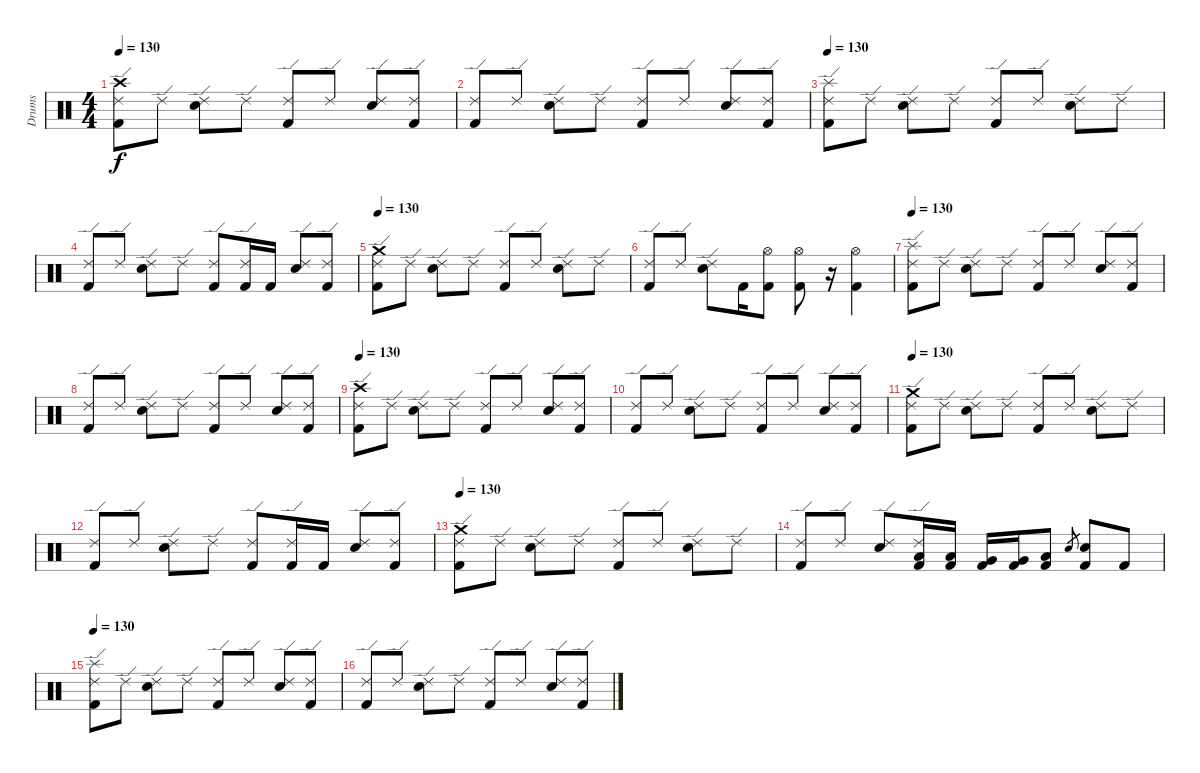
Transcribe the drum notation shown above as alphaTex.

\track ("Drums" "Drums") {instrument percussion}
\staff {score}
\articulation defaults
\ts (4 4)
\tempo 130
\clef neutral
\ks c
("Kick (hit) 2" "Ride (edge) 2" "Crash high (hit)").8{dy f} "Ride (edge) 2".8 ("Snare (hit) 2" "Ride (edge) 2").8 "Ride (edge) 2".8 ("Kick (hit) 2" "Ride (edge) 2").8 "Ride (edge) 2".8 ("Snare (hit) 2" "Ride (edge) 2").8 ("Kick (hit) 2" "Ride (edge) 2").8 |
("Kick (hit) 2" "Ride (edge) 2").8 "Ride (edge) 2".8 ("Snare (hit) 2" "Ride (edge) 2").8 "Ride (edge) 2".8 ("Kick (hit) 2" "Ride (edge) 2").8 "Ride (edge) 2".8 ("Snare (hit) 2" "Ride (edge) 2").8 ("Kick (hit) 2" "Ride (edge) 2").8 |
\tempo 130
("Kick (hit) 2" "Ride (edge) 2" "Splash (hit)").8 "Ride (edge) 2".8 ("Snare (hit) 2" "Ride (edge) 2").8 "Ride (edge) 2".8 ("Kick (hit) 2" "Ride (edge) 2").8 "Ride (edge) 2".8 ("Snare (hit) 2" "Ride (edge) 2").8 "Ride (edge) 2".8 |
("Kick (hit) 2" "Ride (edge) 2").8 "Ride (edge) 2".8 ("Snare (hit) 2" "Ride (edge) 2").8 "Ride (edge) 2".8 ("Kick (hit) 2" "Ride (edge) 2").8 ("Kick (hit) 2" "Ride (edge) 2").16 "Kick (hit) 2".16 ("Snare (hit) 2" "Ride (edge) 2").8 ("Kick (hit) 2" "Ride (edge) 2").8 |
\tempo 130
("Kick (hit) 2" "Ride (edge) 2" "Crash medium (hit)").8 "Ride (edge) 2".8 ("Snare (hit) 2" "Ride (edge) 2").8 "Ride (edge) 2".8 ("Kick (hit) 2" "Ride (edge) 2").8 "Ride (edge) 2".8 ("Snare (hit) 2" "Ride (edge) 2").8 "Ride (edge) 2".8 |
("Kick (hit) 2" "Ride (edge) 2").8 "Ride (edge) 2".8 ("Snare (hit) 2" "Ride (edge) 2").8 "Kick (hit) 2".16 ("Kick (hit) 2" "Hi-Hat (open)").8 ("Kick (hit) 2" "Hi-Hat (open)").8 r.16 ("Kick (hit) 2" "Hi-Hat (open)").4 |
\section ("" "")
\tempo 130
("Kick (hit) 2" "Ride (edge) 2" "Splash (hit)").8 "Ride (edge) 2".8 ("Snare (hit) 2" "Ride (edge) 2").8 "Ride (edge) 2".8 ("Kick (hit) 2" "Ride (edge) 2").8 "Ride (edge) 2".8 ("Snare (hit) 2" "Ride (edge) 2").8 ("Kick (hit) 2" "Ride (edge) 2").8 |
("Kick (hit) 2" "Ride (edge) 2").8 "Ride (edge) 2".8 ("Snare (hit) 2" "Ride (edge) 2").8 "Ride (edge) 2".8 ("Kick (hit) 2" "Ride (edge) 2").8 "Ride (edge) 2".8 ("Snare (hit) 2" "Ride (edge) 2").8 ("Kick (hit) 2" "Ride (edge) 2").8 |
\tempo 130
("Kick (hit) 2" "Ride (edge) 2" "Crash high (hit)").8 "Ride (edge) 2".8 ("Snare (hit) 2" "Ride (edge) 2").8 "Ride (edge) 2".8 ("Kick (hit) 2" "Ride (edge) 2").8 "Ride (edge) 2".8 ("Snare (hit) 2" "Ride (edge) 2").8 ("Kick (hit) 2" "Ride (edge) 2").8 |
("Kick (hit) 2" "Ride (edge) 2").8 "Ride (edge) 2".8 ("Snare (hit) 2" "Ride (edge) 2").8 "Ride (edge) 2".8 ("Kick (hit) 2" "Ride (edge) 2").8 "Ride (edge) 2".8 ("Snare (hit) 2" "Ride (edge) 2").8 ("Kick (hit) 2" "Ride (edge) 2").8 |
\tempo 130
("Kick (hit) 2" "Ride (edge) 2" "Crash medium (hit)").8 "Ride (edge) 2".8 ("Snare (hit) 2" "Ride (edge) 2").8 "Ride (edge) 2".8 ("Kick (hit) 2" "Ride (edge) 2").8 "Ride (edge) 2".8 ("Snare (hit) 2" "Ride (edge) 2").8 "Ride (edge) 2".8 |
("Kick (hit) 2" "Ride (edge) 2").8 "Ride (edge) 2".8 ("Snare (hit) 2" "Ride (edge) 2").8 "Ride (edge) 2".8 ("Kick (hit) 2" "Ride (edge) 2").8 ("Kick (hit) 2" "Ride (edge) 2").16 "Kick (hit) 2".16 ("Snare (hit) 2" "Ride (edge) 2").8 ("Kick (hit) 2" "Ride (edge) 2").8 |
\tempo 130
("Kick (hit) 2" "Ride (edge) 2" "Crash medium (hit)").8 "Ride (edge) 2".8 ("Snare (hit) 2" "Ride (edge) 2").8 "Ride (edge) 2".8 ("Kick (hit) 2" "Ride (edge) 2").8 "Ride (edge) 2".8 ("Snare (hit) 2" "Ride (edge) 2").8 "Ride (edge) 2".8 |
("Kick (hit) 2" "Ride (edge) 2").8 "Ride (edge) 2".8 ("Snare (hit) 2" "Ride (edge) 2").8 ("Kick (hit) 2" "Low Tom (hit)" "Ride (edge) 2").16 ("Kick (hit) 2" "Low Tom (hit)").16 ("Kick (hit) 2" "Very Low Tom (hit)").16 ("Kick (hit) 2" "Very Low Tom (hit)").16 ("Kick (hit) 2" "Low Floor Tom (hit)").8 "Snare (hit) 2".8{gr} ("Kick (hit) 2" "Snare (hit) 2").8 "Kick (hit) 2".8 |
\section ("" "")
\tempo 130
("Kick (hit) 2" "Ride (edge) 2" "Splash (hit)").8 "Ride (edge) 2".8 ("Snare (hit) 2" "Ride (edge) 2").8 "Ride (edge) 2".8 ("Kick (hit) 2" "Ride (edge) 2").8 "Ride (edge) 2".8 ("Snare (hit) 2" "Ride (edge) 2").8 ("Kick (hit) 2" "Ride (edge) 2").8 |
("Kick (hit) 2" "Ride (edge) 2").8 "Ride (edge) 2".8 ("Snare (hit) 2" "Ride (edge) 2").8 "Ride (edge) 2".8 ("Kick (hit) 2" "Ride (edge) 2").8 "Ride (edge) 2".8 ("Snare (hit) 2" "Ride (edge) 2").8 ("Kick (hit) 2" "Ride (edge) 2").8
